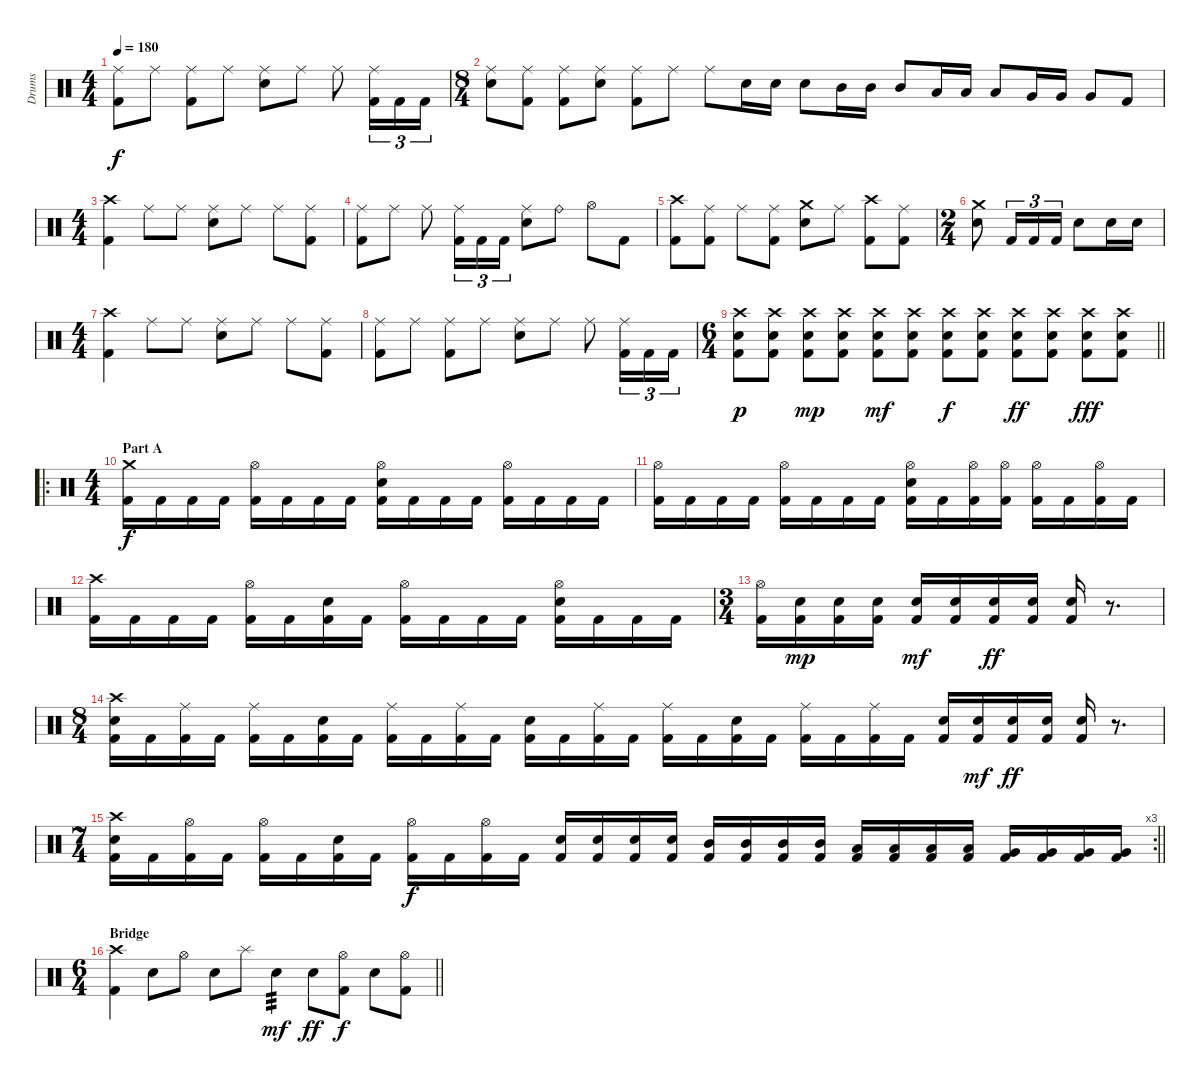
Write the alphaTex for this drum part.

\track ("Drums" "Drums") {instrument percussion}
\staff {score}
\articulation defaults
\ts (4 4)
\tempo 180
\clef neutral
\ks c
("Kick (hit) 2" "Ride (middle)").8{dy f} "Ride (middle)".8 ("Ride (middle)" "Kick (hit) 2").8 "Ride (middle)".8 ("Ride (middle)" "Snare (hit) 2").8 "Ride (middle)".8 "Ride (middle)".8 ("Ride (middle)" "Kick (hit) 2").16{tu (3 2)} "Kick (hit) 2".16{tu (3 2)} "Kick (hit) 2".16{tu (3 2)} |
\ts (8 4)
("Snare (hit) 2" "Ride (middle)").8 ("Ride (middle)" "Kick (hit) 2").8 ("Ride (middle)" "Kick (hit) 2").8 ("Ride (middle)" "Snare (hit) 2").8 ("Kick (hit) 2" "Ride (middle)").8 "Ride (middle)".8 "Ride (middle)".8 "Snare (hit) 2".16 "Snare (hit) 2".16 "Snare (hit) 2".8 "Mid Tom (hit)".16 "Mid Tom (hit)".16 "Mid Tom (hit)".8 "Low Tom (hit)".16 "Low Tom (hit)".16 "Low Tom (hit)".8 "Very Low Tom (hit)".16 "Very Low Tom (hit)".16 "Very Low Tom (hit)".8 "Kick (hit) 2".8 |
\ts (4 4)
("Kick (hit) 2" "Crash high (hit)").4 "Ride (middle)".8 "Ride (middle)".8 ("Ride (middle)" "Snare (hit) 2").8 "Ride (middle)".8 "Ride (middle)".8 ("Ride (middle)" "Kick (hit) 2").8 |
("Kick (hit) 2" "Ride (middle)").8 "Ride (middle)".8 "Ride (middle)".8 ("Ride (middle)" "Kick (hit) 2").16{tu (3 2)} "Kick (hit) 2".16{tu (3 2)} "Kick (hit) 2".16{tu (3 2)} ("Ride (middle)" "Snare (hit) 2").8 "Ride (bell)".8 "Hi-Hat (open)".8 "Kick (hit) 2".8 |
("Kick (hit) 2" "Crash high (hit)").8 ("Ride (middle)" "Kick (hit) 2").8 "Ride (middle)".8 ("Ride (middle)" "Kick (hit) 2").8 ("Crash medium (hit)" "Snare (hit) 2").8 "Ride (middle)".8 ("Crash high (hit)" "Kick (hit) 2").8 ("Ride (middle)" "Kick (hit) 2").8 |
\ts (2 4)
("Crash medium (hit)" "Snare (hit) 2").8 "Kick (hit) 2".16{tu (3 2)} "Kick (hit) 2".16{tu (3 2)} "Kick (hit) 2".16{tu (3 2)} "Snare (hit) 2".8 "Snare (hit) 2".16 "Snare (hit) 2".16 |
\ts (4 4)
("Kick (hit) 2" "Crash high (hit)").4 "Ride (middle)".8 "Ride (middle)".8 ("Ride (middle)" "Snare (hit) 2").8 "Ride (middle)".8 "Ride (middle)".8 ("Ride (middle)" "Kick (hit) 2").8 |
("Kick (hit) 2" "Ride (middle)").8 "Ride (middle)".8 ("Ride (middle)" "Kick (hit) 2").8 "Ride (middle)".8 ("Ride (middle)" "Snare (hit) 2").8 "Ride (middle)".8 "Ride (middle)".8 ("Ride (middle)" "Kick (hit) 2").16{tu (3 2)} "Kick (hit) 2".16{tu (3 2)} "Kick (hit) 2".16{tu (3 2)} |
\ts (6 4)
\barLineRight lightlight
("Kick (hit) 2" "Crash high (hit)" "Snare (hit) 2").8{dy p} ("Kick (hit) 2" "Crash high (hit)" "Snare (hit) 2").8 ("Kick (hit) 2" "Crash high (hit)" "Snare (hit) 2").8{dy mp} ("Kick (hit) 2" "Crash high (hit)" "Snare (hit) 2").8 ("Kick (hit) 2" "Crash high (hit)" "Snare (hit) 2").8{dy mf} ("Kick (hit) 2" "Crash high (hit)" "Snare (hit) 2").8 ("Kick (hit) 2" "Crash high (hit)" "Snare (hit) 2").8{dy f} ("Kick (hit) 2" "Crash high (hit)" "Snare (hit) 2").8 ("Kick (hit) 2" "Crash high (hit)" "Snare (hit) 2").8{dy ff} ("Kick (hit) 2" "Crash high (hit)" "Snare (hit) 2").8 ("Kick (hit) 2" "Crash high (hit)" "Snare (hit) 2").8{dy fff} ("Kick (hit) 2" "Crash high (hit)" "Snare (hit) 2").8 |
\ro
\ts (4 4)
\section ("" "Part A")
("Kick (hit) 2" "Crash medium (hit)").16{dy f} "Kick (hit) 2".16 "Kick (hit) 2".16 "Kick (hit) 2".16 ("Kick (hit) 2" "Hi-Hat (open)").16 "Kick (hit) 2".16 "Kick (hit) 2".16 "Kick (hit) 2".16 ("Kick (hit) 2" "Hi-Hat (open)" "Snare (hit) 2").16 "Kick (hit) 2".16 "Kick (hit) 2".16 "Kick (hit) 2".16 ("Kick (hit) 2" "Hi-Hat (open)").16 "Kick (hit) 2".16 "Kick (hit) 2".16 "Kick (hit) 2".16 |
("Kick (hit) 2" "Hi-Hat (open)").16 "Kick (hit) 2".16 "Kick (hit) 2".16 "Kick (hit) 2".16 ("Kick (hit) 2" "Hi-Hat (open)").16 "Kick (hit) 2".16 "Kick (hit) 2".16 "Kick (hit) 2".16 ("Kick (hit) 2" "Hi-Hat (open)" "Snare (hit) 2").16 "Kick (hit) 2".16 ("Kick (hit) 2" "Hi-Hat (open)").16 ("Kick (hit) 2" "Hi-Hat (open)").16 ("Kick (hit) 2" "Hi-Hat (open)").16 "Kick (hit) 2".16 ("Kick (hit) 2" "Hi-Hat (open)").16 "Kick (hit) 2".16 |
("Kick (hit) 2" "Crash high (hit)").16 "Kick (hit) 2".16 "Kick (hit) 2".16 "Kick (hit) 2".16 ("Kick (hit) 2" "Hi-Hat (open)").16 "Kick (hit) 2".16 ("Kick (hit) 2" "Snare (hit) 2").16 "Kick (hit) 2".16 ("Kick (hit) 2" "Hi-Hat (open)").16 "Kick (hit) 2".16 "Kick (hit) 2".16 "Kick (hit) 2".16 ("Kick (hit) 2" "Hi-Hat (open)" "Snare (hit) 2").16 "Kick (hit) 2".16 "Kick (hit) 2".16 "Kick (hit) 2".16 |
\ts (3 4)
("Kick (hit) 2" "Hi-Hat (open)").16 ("Kick (hit) 2" "Snare (hit) 2").16{dy mp} ("Kick (hit) 2" "Snare (hit) 2").16 ("Kick (hit) 2" "Snare (hit) 2").16 ("Kick (hit) 2" "Snare (hit) 2").16{dy mf} ("Kick (hit) 2" "Snare (hit) 2").16 ("Kick (hit) 2" "Snare (hit) 2").16{dy ff} ("Kick (hit) 2" "Snare (hit) 2").16 ("Kick (hit) 2" "Snare (hit) 2").16 r.8{d} |
\ts (8 4)
("Crash high (hit)" "Kick (hit) 2" "Snare (hit) 2").16 "Kick (hit) 2".16 ("Kick (hit) 2" "Ride (middle)").16 "Kick (hit) 2".16 ("Kick (hit) 2" "Ride (middle)").16 "Kick (hit) 2".16 ("Kick (hit) 2" "Snare (hit) 2").16 "Kick (hit) 2".16 ("Kick (hit) 2" "Ride (middle)").16 "Kick (hit) 2".16 ("Kick (hit) 2" "Ride (middle)").16 "Kick (hit) 2".16 ("Kick (hit) 2" "Snare (hit) 2").16 "Kick (hit) 2".16 ("Kick (hit) 2" "Ride (middle)").16 "Kick (hit) 2".16 ("Kick (hit) 2" "Ride (middle)").16 "Kick (hit) 2".16 ("Kick (hit) 2" "Snare (hit) 2").16 "Kick (hit) 2".16 ("Kick (hit) 2" "Ride (middle)").16 "Kick (hit) 2".16 ("Kick (hit) 2" "Ride (middle)").16 "Kick (hit) 2".16 ("Snare (hit) 2" "Kick (hit) 2").16 ("Kick (hit) 2" "Snare (hit) 2").16{dy mf} ("Kick (hit) 2" "Snare (hit) 2").16{dy ff} ("Kick (hit) 2" "Snare (hit) 2").16 ("Kick (hit) 2" "Snare (hit) 2").16 r.8{d} |
\rc 3
\ts (7 4)
\barLineRight lightlight
("Crash high (hit)" "Kick (hit) 2" "Snare (hit) 2").16 "Kick (hit) 2".16 ("Kick (hit) 2" "Hi-Hat (open)").16 "Kick (hit) 2".16 ("Kick (hit) 2" "Hi-Hat (open)").16 "Kick (hit) 2".16 ("Kick (hit) 2" "Snare (hit) 2").16 "Kick (hit) 2".16 ("Kick (hit) 2" "Hi-Hat (open)").16{dy f} "Kick (hit) 2".16 ("Kick (hit) 2" "Hi-Hat (open)").16 "Kick (hit) 2".16 ("Kick (hit) 2" "Snare (hit) 2").16 ("Kick (hit) 2" "Snare (hit) 2").16 ("Kick (hit) 2" "Snare (hit) 2").16 ("Kick (hit) 2" "Snare (hit) 2").16 ("Kick (hit) 2" "Mid Tom (hit)").16 ("Kick (hit) 2" "Mid Tom (hit)").16 ("Kick (hit) 2" "Mid Tom (hit)").16 ("Kick (hit) 2" "Mid Tom (hit)").16 ("Kick (hit) 2" "Low Tom (hit)").16 ("Kick (hit) 2" "Low Tom (hit)").16 ("Kick (hit) 2" "Low Tom (hit)").16 ("Kick (hit) 2" "Low Tom (hit)").16 ("Kick (hit) 2" "Very Low Tom (hit)").16 ("Kick (hit) 2" "Very Low Tom (hit)").16 ("Kick (hit) 2" "Very Low Tom (hit)").16 ("Kick (hit) 2" "Very Low Tom (hit)").16 |
\ts (6 4)
\section ("" "Bridge")
\barLineRight lightlight
("Kick (hit) 2" "Crash high (hit)").4 "Snare (hit) 2".8 "Hi-Hat (open)".8 "Snare (hit) 2".8 "Splash (hit)".8 "Snare (hit) 2".4{tp 3 dy mf} "Snare (hit) 2".8{dy ff} ("Hi-Hat (open)" "Kick (hit) 2").8{dy f} "Snare (hit) 2".8 ("Hi-Hat (open)" "Kick (hit) 2").8
